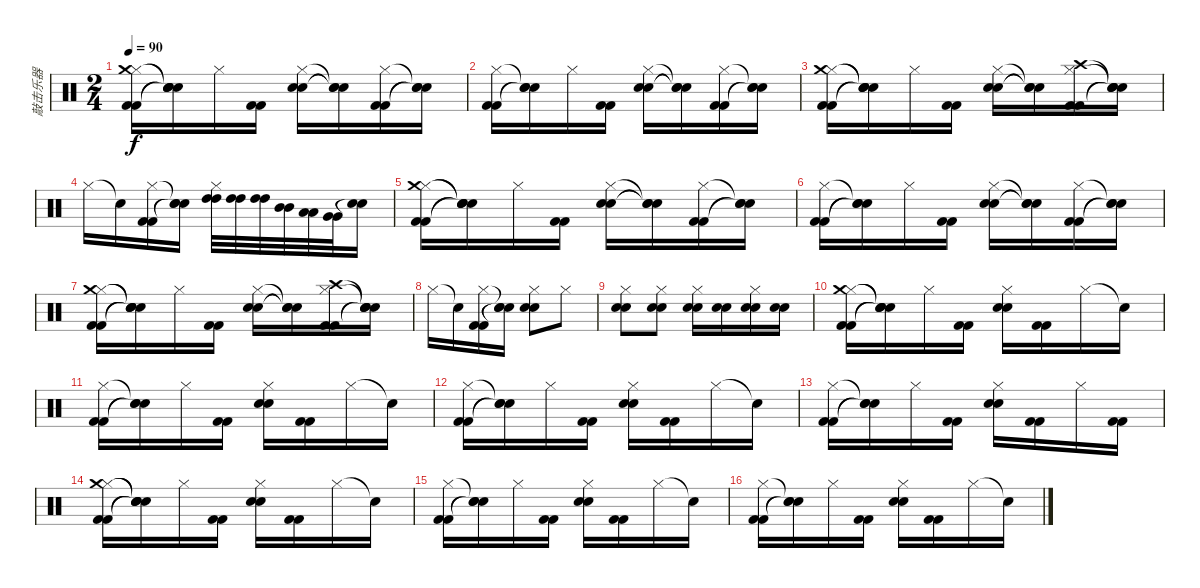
\track ("敲击乐器" "敲击乐器") {instrument percussion}
\staff {score}
\articulation defaults
\ts (2 4)
\tempo 90
\clef neutral
\ks c
("Hi-Hat (closed)" "Crash medium (hit)" "Kick (hit) 2" "Kick (hit) 2").16{dy f} ("Snare (hit)"{t} "Snare (hit)"{t} "Snare (hit)"{t} "Snare (hit)"{t}).16 "Hi-Hat (closed)".16 ("Kick (hit) 2" "Kick (hit) 2").16 ("Hi-Hat (closed)" "Electric Snare (hit)" "Electric Snare (hit)").16 ("Snare (hit)"{t} "Snare (hit)"{t} "Snare (hit)"{t}).16 ("Hi-Hat (closed)" "Kick (hit) 2" "Kick (hit) 2").16 ("Snare (hit)"{t} "Snare (hit)"{t} "Snare (hit)"{t}).16 |
("Hi-Hat (closed)" "Kick (hit) 2" "Kick (hit) 2").16 ("Snare (hit)"{t} "Snare (hit)"{t} "Snare (hit)"{t}).16 "Hi-Hat (closed)".16 ("Kick (hit) 2" "Kick (hit) 2").16 ("Hi-Hat (closed)" "Electric Snare (hit)" "Electric Snare (hit)").16 ("Snare (hit)"{t} "Snare (hit)"{t} "Snare (hit)"{t}).16 ("Hi-Hat (closed)" "Kick (hit) 2" "Kick (hit) 2").16 ("Snare (hit)"{t} "Snare (hit)"{t} "Snare (hit)"{t}).16 |
("Hi-Hat (closed)" "Crash medium (hit)" "Kick (hit) 2" "Kick (hit) 2").16 ("Snare (hit)"{t} "Snare (hit)"{t} "Snare (hit)"{t} "Snare (hit)"{t}).16 "Hi-Hat (closed)".16 ("Kick (hit) 2" "Kick (hit) 2").16 ("Hi-Hat (closed)" "Electric Snare (hit)" "Electric Snare (hit)").16 ("Snare (hit)"{t} "Snare (hit)"{t} "Snare (hit)"{t}).16 ("Hi-Hat (closed)" "Crash high (hit)" "Kick (hit) 2" "Kick (hit) 2").16 ("Snare (hit)"{t} "Snare (hit)"{t} "Snare (hit)"{t} "Snare (hit)"{t}).16 |
"Hi-Hat (closed)".16 "Snare (hit)"{t}.16 ("Hi-Hat (closed)" "Kick (hit) 2" "Kick (hit) 2").16 ("Snare (hit)"{t} "Snare (hit)"{t} "Snare (hit)"{t}).16 ("Hi-Hat (closed)" "High Tom (hit)" "High Tom (hit)").32 ("High Tom (hit)" "High Tom (hit)").32 ("High Tom (hit)" "High Tom (hit)").32 ("Mid Tom (hit)" "Mid Tom (hit)").32 ("Low Tom (hit)" "Low Tom (hit)").32 ("Very Low Tom (hit)" "Very Low Tom (hit)").32 ("Snare (hit)"{t} "Snare (hit)"{t}).16 |
("Hi-Hat (closed)" "Crash medium (hit)" "Kick (hit) 2" "Kick (hit) 2").16 ("Snare (hit)"{t} "Snare (hit)"{t} "Snare (hit)"{t} "Snare (hit)"{t}).16 "Hi-Hat (closed)".16 ("Kick (hit) 2" "Kick (hit) 2").16 ("Hi-Hat (closed)" "Electric Snare (hit)" "Electric Snare (hit)").16 ("Snare (hit)"{t} "Snare (hit)"{t} "Snare (hit)"{t}).16 ("Hi-Hat (closed)" "Kick (hit) 2" "Kick (hit) 2").16 ("Snare (hit)"{t} "Snare (hit)"{t} "Snare (hit)"{t}).16 |
("Hi-Hat (closed)" "Kick (hit) 2" "Kick (hit) 2").16 ("Snare (hit)"{t} "Snare (hit)"{t} "Snare (hit)"{t}).16 "Hi-Hat (closed)".16 ("Kick (hit) 2" "Kick (hit) 2").16 ("Hi-Hat (closed)" "Electric Snare (hit)" "Electric Snare (hit)").16 ("Snare (hit)"{t} "Snare (hit)"{t} "Snare (hit)"{t}).16 ("Hi-Hat (closed)" "Kick (hit) 2" "Kick (hit) 2").16 ("Snare (hit)"{t} "Snare (hit)"{t} "Snare (hit)"{t}).16 |
("Hi-Hat (closed)" "Crash medium (hit)" "Kick (hit) 2" "Kick (hit) 2").16 ("Snare (hit)"{t} "Snare (hit)"{t} "Snare (hit)"{t} "Snare (hit)"{t}).16 "Hi-Hat (closed)".16 ("Kick (hit) 2" "Kick (hit) 2").16 ("Hi-Hat (closed)" "Electric Snare (hit)" "Electric Snare (hit)").16 ("Snare (hit)"{t} "Snare (hit)"{t} "Snare (hit)"{t}).16 ("Hi-Hat (closed)" "Crash high (hit)" "Kick (hit) 2" "Kick (hit) 2").16 ("Snare (hit)"{t} "Snare (hit)"{t} "Snare (hit)"{t} "Snare (hit)"{t}).16 |
"Hi-Hat (closed)".16 "Snare (hit)"{t}.16 ("Hi-Hat (closed)" "Kick (hit) 2" "Kick (hit) 2").16 ("Snare (hit)"{t} "Snare (hit)"{t} "Snare (hit)"{t}).16 ("Hi-Hat (closed)" "Snare (hit) 2" "Snare (hit) 2").8 "Hi-Hat (closed)".8 |
("Hi-Hat (closed)" "Snare (hit) 2" "Snare (hit) 2").8 ("Hi-Hat (closed)" "Snare (hit) 2" "Snare (hit) 2").8 ("Hi-Hat (closed)" "Snare (hit) 2" "Snare (hit) 2").16 ("Snare (hit) 2" "Snare (hit) 2").16 ("Hi-Hat (closed)" "Snare (hit) 2" "Snare (hit) 2").16 ("Snare (hit) 2" "Snare (hit) 2").16 |
("Hi-Hat (closed)" "Crash medium (hit)" "Kick (hit) 2" "Kick (hit) 2").16 ("Snare (hit)"{t} "Snare (hit)"{t} "Snare (hit)"{t} "Snare (hit)"{t}).16 "Hi-Hat (closed)".16 ("Kick (hit) 2" "Kick (hit) 2").16 ("Hi-Hat (closed)" "Electric Snare (hit)" "Electric Snare (hit)").16 ("Kick (hit) 2" "Kick (hit) 2").16 "Hi-Hat (closed)".16 "Snare (hit)"{t}.16 |
("Hi-Hat (closed)" "Kick (hit) 2" "Kick (hit) 2").16 ("Snare (hit)"{t} "Snare (hit)"{t} "Snare (hit)"{t}).16 "Hi-Hat (closed)".16 ("Kick (hit) 2" "Kick (hit) 2").16 ("Hi-Hat (closed)" "Electric Snare (hit)" "Electric Snare (hit)").16 ("Kick (hit) 2" "Kick (hit) 2").16 "Hi-Hat (closed)".16 "Snare (hit)"{t}.16 |
("Hi-Hat (closed)" "Kick (hit) 2" "Kick (hit) 2").16 ("Snare (hit)"{t} "Snare (hit)"{t} "Snare (hit)"{t}).16 "Hi-Hat (closed)".16 ("Kick (hit) 2" "Kick (hit) 2").16 ("Hi-Hat (closed)" "Electric Snare (hit)" "Electric Snare (hit)").16 ("Kick (hit) 2" "Kick (hit) 2").16 "Hi-Hat (closed)".16 "Snare (hit)"{t}.16 |
("Hi-Hat (closed)" "Kick (hit) 2" "Kick (hit) 2").16 ("Snare (hit)"{t} "Snare (hit)"{t} "Snare (hit)"{t}).16 "Hi-Hat (closed)".16 ("Kick (hit) 2" "Kick (hit) 2").16 ("Hi-Hat (closed)" "Electric Snare (hit)" "Electric Snare (hit)").16 ("Kick (hit) 2" "Kick (hit) 2").16 "Hi-Hat (closed)".16 ("Kick (hit) 2" "Kick (hit) 2").16 |
("Hi-Hat (closed)" "Crash medium (hit)" "Kick (hit) 2" "Kick (hit) 2").16 ("Snare (hit)"{t} "Snare (hit)"{t} "Snare (hit)"{t} "Snare (hit)"{t}).16 "Hi-Hat (closed)".16 ("Kick (hit) 2" "Kick (hit) 2").16 ("Hi-Hat (closed)" "Electric Snare (hit)" "Electric Snare (hit)").16 ("Kick (hit) 2" "Kick (hit) 2").16 "Hi-Hat (closed)".16 "Snare (hit)"{t}.16 |
("Hi-Hat (closed)" "Kick (hit) 2" "Kick (hit) 2").16 ("Snare (hit)"{t} "Snare (hit)"{t} "Snare (hit)"{t}).16 "Hi-Hat (closed)".16 ("Kick (hit) 2" "Kick (hit) 2").16 ("Hi-Hat (closed)" "Electric Snare (hit)" "Electric Snare (hit)").16 ("Kick (hit) 2" "Kick (hit) 2").16 "Hi-Hat (closed)".16 "Snare (hit)"{t}.16 |
("Hi-Hat (closed)" "Kick (hit) 2" "Kick (hit) 2").16 ("Snare (hit)"{t} "Snare (hit)"{t} "Snare (hit)"{t}).16 "Hi-Hat (closed)".16 ("Kick (hit) 2" "Kick (hit) 2").16 ("Hi-Hat (closed)" "Electric Snare (hit)" "Electric Snare (hit)").16 ("Kick (hit) 2" "Kick (hit) 2").16 "Hi-Hat (closed)".16 "Snare (hit)"{t}.16
